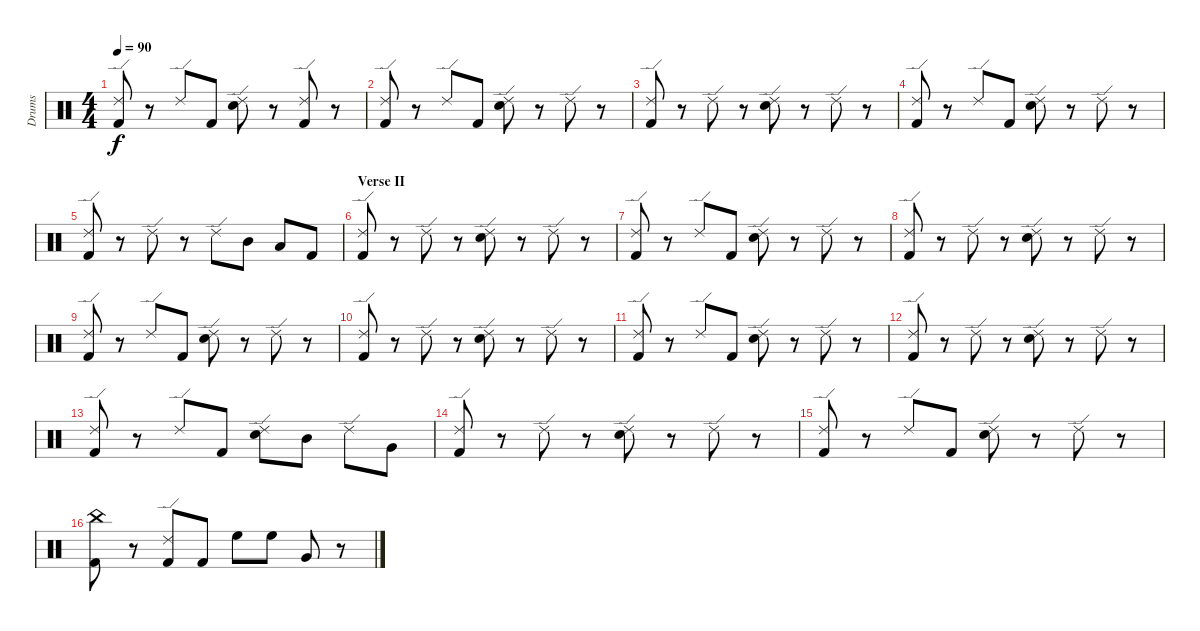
\track ("Drums" "Drums") {instrument percussion}
\staff {score}
\articulation defaults
\ts (4 4)
\tempo 90
\clef neutral
\ks c
("Ride (edge) 2" "Kick (hit) 2").8{dy f} r.8 "Ride (edge) 2".8 "Kick (hit) 2".8 ("Ride (edge) 2" "Snare (hit) 2").8 r.8 ("Ride (edge) 2" "Kick (hit) 2").8 r.8 |
("Ride (edge) 2" "Kick (hit) 2").8 r.8 "Ride (edge) 2".8 "Kick (hit) 2".8 ("Ride (edge) 2" "Snare (hit) 2").8 r.8 "Ride (edge) 2".8 r.8 |
("Ride (edge) 2" "Kick (hit) 2").8 r.8 "Ride (edge) 2".8 r.8 ("Ride (edge) 2" "Snare (hit) 2").8 r.8 "Ride (edge) 2".8 r.8 |
("Ride (edge) 2" "Kick (hit) 2").8 r.8 "Ride (edge) 2".8 "Kick (hit) 2".8 ("Ride (edge) 2" "Snare (hit) 2").8 r.8 "Ride (edge) 2".8 r.8 |
("Ride (edge) 2" "Kick (hit) 2").8 r.8 "Ride (edge) 2".8 r.8 "Ride (edge) 2".8 "Mid Tom (hit)".8 "Low Tom (hit)".8 "Kick (hit) 2".8 |
\section ("" "Verse II")
("Ride (edge) 2" "Kick (hit) 2").8 r.8 "Ride (edge) 2".8 r.8 ("Ride (edge) 2" "Snare (hit) 2").8 r.8 "Ride (edge) 2".8 r.8 |
("Ride (edge) 2" "Kick (hit) 2").8 r.8 "Ride (edge) 2".8 "Kick (hit) 2".8 ("Ride (edge) 2" "Snare (hit) 2").8 r.8 "Ride (edge) 2".8 r.8 |
("Ride (edge) 2" "Kick (hit) 2").8 r.8 "Ride (edge) 2".8 r.8 ("Ride (edge) 2" "Snare (hit) 2").8 r.8 "Ride (edge) 2".8 r.8 |
("Ride (edge) 2" "Kick (hit) 2").8 r.8 "Ride (edge) 2".8 "Kick (hit) 2".8 ("Ride (edge) 2" "Snare (hit) 2").8 r.8 "Ride (edge) 2".8 r.8 |
("Ride (edge) 2" "Kick (hit) 2").8 r.8 "Ride (edge) 2".8 r.8 ("Ride (edge) 2" "Snare (hit) 2").8 r.8 "Ride (edge) 2".8 r.8 |
("Ride (edge) 2" "Kick (hit) 2").8 r.8 "Ride (edge) 2".8 "Kick (hit) 2".8 ("Ride (edge) 2" "Snare (hit) 2").8 r.8 "Ride (edge) 2".8 r.8 |
("Ride (edge) 2" "Kick (hit) 2").8 r.8 "Ride (edge) 2".8 r.8 ("Ride (edge) 2" "Snare (hit) 2").8 r.8 "Ride (edge) 2".8 r.8 |
("Ride (edge) 2" "Kick (hit) 2").8 r.8 "Ride (edge) 2".8 "Kick (hit) 2".8 ("Ride (edge) 2" "Snare (hit) 2").8 "Mid Tom (hit)".8 "Ride (edge) 2".8 "Very Low Tom (hit)".8 |
("Ride (edge) 2" "Kick (hit) 2").8 r.8 "Ride (edge) 2".8 r.8 ("Ride (edge) 2" "Snare (hit) 2").8 r.8 "Ride (edge) 2".8 r.8 |
("Ride (edge) 2" "Kick (hit) 2").8 r.8 "Ride (edge) 2".8 "Kick (hit) 2".8 ("Ride (edge) 2" "Snare (hit) 2").8 r.8 "Ride (edge) 2".8 r.8 |
("China (hit)" "Kick (hit) 2").8 r.8 ("Ride (edge) 2" "Kick (hit) 2").8 "Kick (hit) 2".8 "High Floor Tom (hit)".8 "High Floor Tom (hit)".8 "Very Low Tom (hit)".8 r.8
